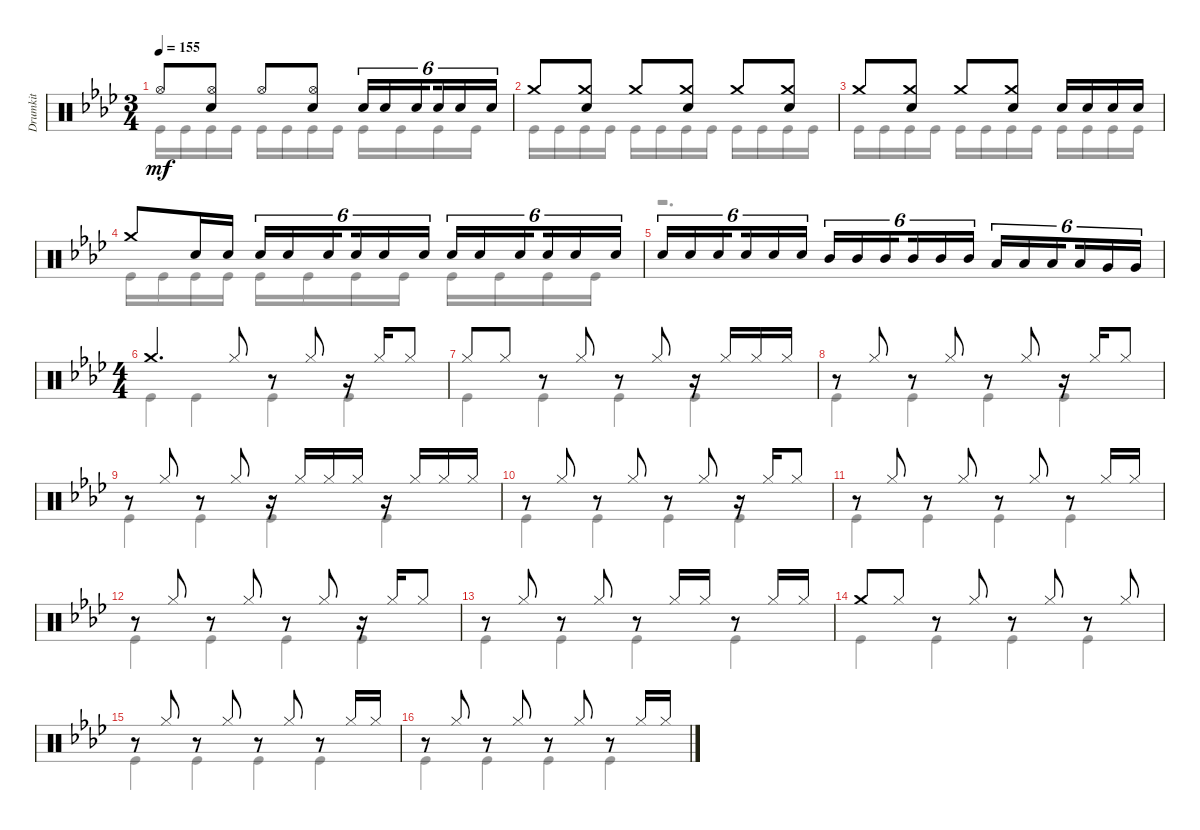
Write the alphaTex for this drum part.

\track ("Drumkit" "Drumkit") {instrument percussion}
\staff {score}
\articulation defaults
\voice
\ts (3 4)
\tempo 155
\clef neutral
\ks ab "Hi-Hat (open)".8{dy mf}
("Hi-Hat (open)" "Snare (hit) 2").8 "Hi-Hat (open)".8 ("Hi-Hat (open)" "Snare (hit) 2").8 "Snare (hit) 2".16{tu (6 4)} "Snare (hit) 2".16{tu (6 4)} "Snare (hit) 2".16{tu (6 4) beam splitsecondary} "Snare (hit) 2".16{tu (6 4)} "Snare (hit) 2".16{tu (6 4)} "Snare (hit) 2".16{tu (6 4)} |
"Crash medium (hit)".8 ("Snare (hit) 2" "Crash medium (hit)").8 "Crash medium (hit)".8 ("Snare (hit) 2" "Crash medium (hit)").8 "Crash medium (hit)".8 ("Snare (hit) 2" "Crash medium (hit)").8 |
"Crash medium (hit)".8 ("Snare (hit) 2" "Crash medium (hit)").8 "Crash medium (hit)".8 ("Snare (hit) 2" "Crash medium (hit)").8 "Snare (hit) 2".16 "Snare (hit) 2".16 "Snare (hit) 2".16 "Snare (hit) 2".16 |
"Crash medium (hit)".8 "Snare (hit) 2".16 "Snare (hit) 2".16 "Snare (hit) 2".16{tu (6 4)} "Snare (hit) 2".16{tu (6 4)} "Snare (hit) 2".16{tu (6 4) beam splitsecondary} "Snare (hit) 2".16{tu (6 4)} "Snare (hit) 2".16{tu (6 4)} "Snare (hit) 2".16{tu (6 4)} "Snare (hit) 2".16{tu (6 4)} "Snare (hit) 2".16{tu (6 4)} "Snare (hit) 2".16{tu (6 4) beam splitsecondary} "Snare (hit) 2".16{tu (6 4)} "Snare (hit) 2".16{tu (6 4)} "Snare (hit) 2".16{tu (6 4)} |
"Snare (hit) 2".16{tu (6 4)} "Snare (hit) 2".16{tu (6 4)} "Snare (hit) 2".16{tu (6 4) beam splitsecondary} "Snare (hit) 2".16{tu (6 4)} "Snare (hit) 2".16{tu (6 4)} "Snare (hit) 2".16{tu (6 4)} "Mid Tom (hit)".16{tu (6 4)} "Mid Tom (hit)".16{tu (6 4)} "Mid Tom (hit)".16{tu (6 4) beam splitsecondary} "Mid Tom (hit)".16{tu (6 4)} "Mid Tom (hit)".16{tu (6 4)} "Mid Tom (hit)".16{tu (6 4)} "Low Tom (hit)".16{tu (6 4)} "Low Tom (hit)".16{tu (6 4)} "Low Tom (hit)".16{tu (6 4) beam splitsecondary} "Low Tom (hit)".16{tu (6 4)} "Very Low Tom (hit)".16{tu (6 4)} "Very Low Tom (hit)".16{tu (6 4)} |
\ts (4 4)
"Crash medium (hit)".4{d} "Hi-Hat (closed)".8 r.8 "Hi-Hat (closed)".8 r.16 "Hi-Hat (closed)".16 "Hi-Hat (closed)".8 |
"Hi-Hat (closed)".8 "Hi-Hat (closed)".8 r.8 "Hi-Hat (closed)".8 r.8 "Hi-Hat (closed)".8 r.16 "Hi-Hat (closed)".16 "Hi-Hat (closed)".16 "Hi-Hat (closed)".16 |
r.8 "Hi-Hat (closed)".8 r.8 "Hi-Hat (closed)".8 r.8 "Hi-Hat (closed)".8 r.16 "Hi-Hat (closed)".16 "Hi-Hat (closed)".8 |
r.8 "Hi-Hat (closed)".8 r.8 "Hi-Hat (closed)".8 r.16 "Hi-Hat (closed)".16 "Hi-Hat (closed)".16 "Hi-Hat (closed)".16 r.16 "Hi-Hat (closed)".16 "Hi-Hat (closed)".16 "Hi-Hat (closed)".16 |
r.8 "Hi-Hat (closed)".8 r.8 "Hi-Hat (closed)".8 r.8 "Hi-Hat (closed)".8 r.16 "Hi-Hat (closed)".16 "Hi-Hat (closed)".8 |
r.8 "Hi-Hat (closed)".8 r.8 "Hi-Hat (closed)".8 r.8 "Hi-Hat (closed)".8 r.8 "Hi-Hat (closed)".16 "Hi-Hat (closed)".16 |
r.8 "Hi-Hat (closed)".8 r.8 "Hi-Hat (closed)".8 r.8 "Hi-Hat (closed)".8 r.16 "Hi-Hat (closed)".16 "Hi-Hat (closed)".8 |
r.8 "Hi-Hat (closed)".8 r.8 "Hi-Hat (closed)".8 r.8 "Hi-Hat (closed)".16 "Hi-Hat (closed)".16 r.8 "Hi-Hat (closed)".16 "Hi-Hat (closed)".16 |
"Crash medium (hit)".8 "Hi-Hat (closed)".8 r.8 "Hi-Hat (closed)".8 r.8 "Hi-Hat (closed)".8 r.8 "Hi-Hat (closed)".8 |
r.8 "Hi-Hat (closed)".8 r.8 "Hi-Hat (closed)".8 r.8 "Hi-Hat (closed)".8 r.8 "Hi-Hat (closed)".16 "Hi-Hat (closed)".16 |
r.8 "Hi-Hat (closed)".8 r.8 "Hi-Hat (closed)".8 r.8 "Hi-Hat (closed)".8 r.8 "Hi-Hat (closed)".16 "Hi-Hat (closed)".16
\voice
\clef neutral
\ottava regular
\simile none
\ks ab "Kick (hit)".16{dy mf} "Kick (hit)".16 "Kick (hit)".16 "Kick (hit)".16 "Kick (hit)".16 "Kick (hit)".16 "Kick (hit)".16 "Kick (hit)".16 "Kick (hit)".16 "Kick (hit)".16 "Kick (hit)".16 "Kick (hit)".16
|
"Kick (hit)".16 "Kick (hit)".16 "Kick (hit)".16 "Kick (hit)".16 "Kick (hit)".16 "Kick (hit)".16 "Kick (hit)".16 "Kick (hit)".16 "Kick (hit)".16 "Kick (hit)".16 "Kick (hit)".16 "Kick (hit)".16 |
"Kick (hit)".16 "Kick (hit)".16 "Kick (hit)".16 "Kick (hit)".16 "Kick (hit)".16 "Kick (hit)".16 "Kick (hit)".16 "Kick (hit)".16 "Kick (hit)".16 "Kick (hit)".16 "Kick (hit)".16 "Kick (hit)".16 |
"Kick (hit)".16 "Kick (hit)".16 "Kick (hit)".16 "Kick (hit)".16 "Kick (hit)".16 "Kick (hit)".16 "Kick (hit)".16 "Kick (hit)".16 "Kick (hit)".16 "Kick (hit)".16 "Kick (hit)".16 "Kick (hit)".16 |
r.2{d} |
"Kick (hit)".4 "Kick (hit)".4 "Kick (hit)".4 "Kick (hit)".4 |
"Kick (hit)".4 "Kick (hit)".4 "Kick (hit)".4 "Kick (hit)".4 |
"Kick (hit)".4 "Kick (hit)".4 "Kick (hit)".4 "Kick (hit)".4 |
"Kick (hit)".4 "Kick (hit)".4 "Kick (hit)".4 "Kick (hit)".4 |
"Kick (hit)".4 "Kick (hit)".4 "Kick (hit)".4 "Kick (hit)".4 |
"Kick (hit)".4 "Kick (hit)".4 "Kick (hit)".4 "Kick (hit)".4 |
"Kick (hit)".4 "Kick (hit)".4 "Kick (hit)".4 "Kick (hit)".4 |
"Kick (hit)".4 "Kick (hit)".4 "Kick (hit)".4 "Kick (hit)".4 |
"Kick (hit)".4 "Kick (hit)".4 "Kick (hit)".4 "Kick (hit)".4 |
"Kick (hit)".4 "Kick (hit)".4 "Kick (hit)".4 "Kick (hit)".4 |
"Kick (hit)".4 "Kick (hit)".4 "Kick (hit)".4 "Kick (hit)".4
